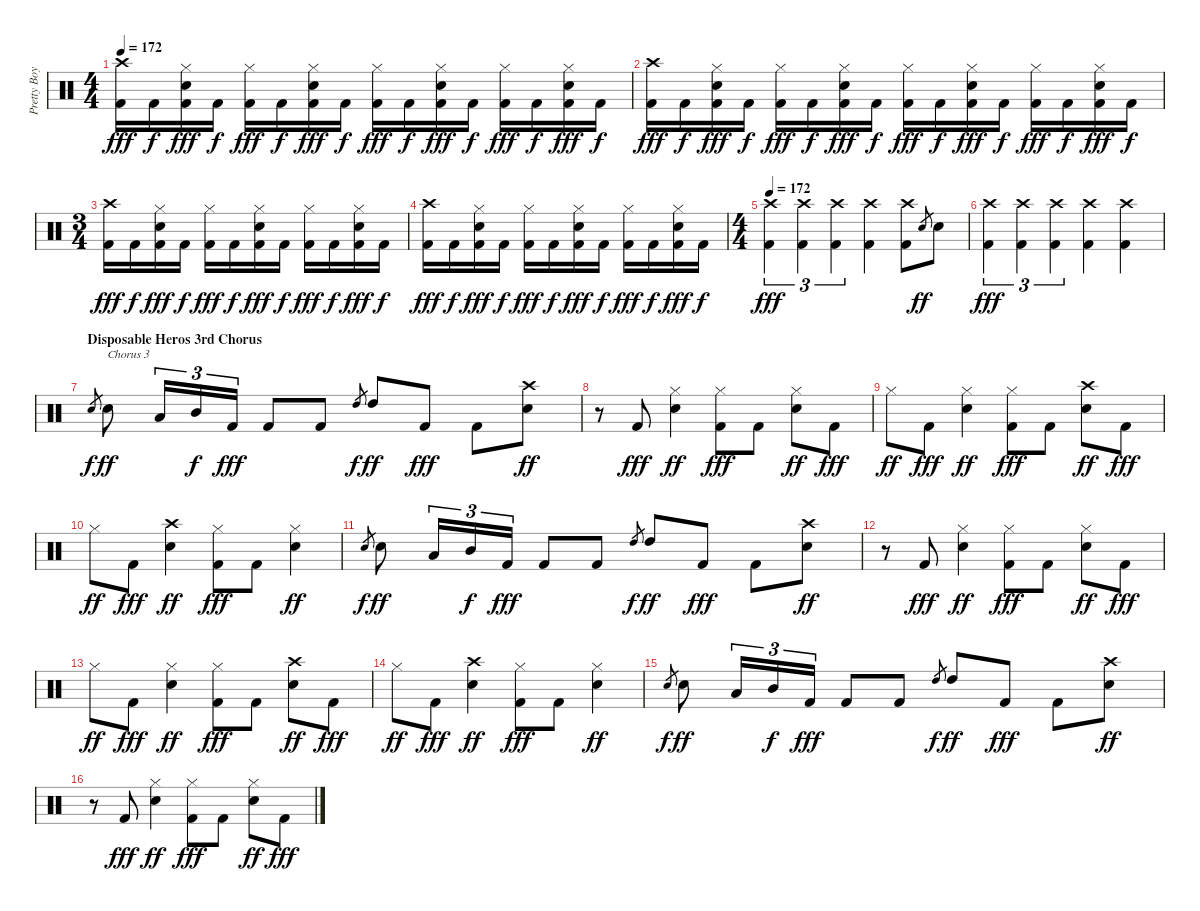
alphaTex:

\track ("Pretty Boy Geoff (Lars Drums)" "Pretty Boy") {instrument percussion}
\staff {score}
\articulation defaults
\ts (4 4)
\tempo 172
\clef neutral
\ks c
("Crash high (hit)" "Kick (hit) 2").16{dy fff} "Kick (hit) 2".16{dy f} ("Hi-Hat (closed)" "Snare (hit) 2" "Kick (hit) 2").16{dy fff} "Kick (hit) 2".16{dy f} ("Hi-Hat (closed)" "Kick (hit) 2").16{dy fff} "Kick (hit) 2".16{dy f} ("Hi-Hat (closed)" "Snare (hit) 2" "Kick (hit) 2").16{dy fff} "Kick (hit) 2".16{dy f} ("Hi-Hat (closed)" "Kick (hit) 2").16{dy fff} "Kick (hit) 2".16{dy f} ("Hi-Hat (closed)" "Snare (hit) 2" "Kick (hit) 2").16{dy fff} "Kick (hit) 2".16{dy f} ("Hi-Hat (closed)" "Kick (hit) 2").16{dy fff} "Kick (hit) 2".16{dy f} ("Hi-Hat (closed)" "Snare (hit) 2" "Kick (hit) 2").16{dy fff} "Kick (hit) 2".16{dy f} |
("Crash high (hit)" "Kick (hit) 2").16{dy fff} "Kick (hit) 2".16{dy f} ("Hi-Hat (closed)" "Snare (hit) 2" "Kick (hit) 2").16{dy fff} "Kick (hit) 2".16{dy f} ("Hi-Hat (closed)" "Kick (hit) 2").16{dy fff} "Kick (hit) 2".16{dy f} ("Hi-Hat (closed)" "Snare (hit) 2" "Kick (hit) 2").16{dy fff} "Kick (hit) 2".16{dy f} ("Hi-Hat (closed)" "Kick (hit) 2").16{dy fff} "Kick (hit) 2".16{dy f} ("Hi-Hat (closed)" "Snare (hit) 2" "Kick (hit) 2").16{dy fff} "Kick (hit) 2".16{dy f} ("Hi-Hat (closed)" "Kick (hit) 2").16{dy fff} "Kick (hit) 2".16{dy f} ("Hi-Hat (closed)" "Snare (hit) 2" "Kick (hit) 2").16{dy fff} "Kick (hit) 2".16{dy f} |
\ts (3 4)
("Crash high (hit)" "Kick (hit) 2").16{dy fff} "Kick (hit) 2".16{dy f} ("Hi-Hat (closed)" "Snare (hit) 2" "Kick (hit) 2").16{dy fff} "Kick (hit) 2".16{dy f} ("Hi-Hat (closed)" "Kick (hit) 2").16{dy fff} "Kick (hit) 2".16{dy f} ("Hi-Hat (closed)" "Snare (hit) 2" "Kick (hit) 2").16{dy fff} "Kick (hit) 2".16{dy f} ("Hi-Hat (closed)" "Kick (hit) 2").16{dy fff} "Kick (hit) 2".16{dy f} ("Hi-Hat (closed)" "Snare (hit) 2" "Kick (hit) 2").16{dy fff} "Kick (hit) 2".16{dy f} |
("Crash high (hit)" "Kick (hit) 2").16{dy fff} "Kick (hit) 2".16{dy f} ("Hi-Hat (closed)" "Snare (hit) 2" "Kick (hit) 2").16{dy fff} "Kick (hit) 2".16{dy f} ("Hi-Hat (closed)" "Kick (hit) 2").16{dy fff} "Kick (hit) 2".16{dy f} ("Hi-Hat (closed)" "Snare (hit) 2" "Kick (hit) 2").16{dy fff} "Kick (hit) 2".16{dy f} ("Hi-Hat (closed)" "Kick (hit) 2").16{dy fff} "Kick (hit) 2".16{dy f} ("Hi-Hat (closed)" "Snare (hit) 2" "Kick (hit) 2").16{dy fff} "Kick (hit) 2".16{dy f} |
\ts (4 4)
\tempo 172
("Crash high (hit)" "Kick (hit) 2").4{tu (3 2) dy fff} ("Crash high (hit)" "Kick (hit) 2").4{tu (3 2)} ("Crash high (hit)" "Kick (hit) 2").4{tu (3 2)} ("Crash high (hit)" "Kick (hit) 2").4 ("Crash high (hit)" "Kick (hit) 2").8 "Snare (hit) 2"{sl}.8{gr dy ff} "Snare (hit) 2".8 |
("Crash high (hit)" "Kick (hit) 2").4{tu (3 2) dy fff} ("Crash high (hit)" "Kick (hit) 2").4{tu (3 2)} ("Crash high (hit)" "Kick (hit) 2").4{tu (3 2)} ("Crash high (hit)" "Kick (hit) 2").4 ("Crash high (hit)" "Kick (hit) 2").4 |
\section ("" "Disposable Heros 3rd Chorus")
"Snare (hit) 2"{sl}.8{gr dy f} "Snare (hit) 2".8{txt "Chorus 3" dy ff} "Low Tom (hit)".16{tu (3 2)} "Mid Tom (hit)".16{tu (3 2) dy f} "Kick (hit) 2".16{tu (3 2) dy fff} "Kick (hit) 2".8 "Kick (hit) 2".8 "High Tom (hit)"{sl}.8{gr dy f} "High Tom (hit)".8{dy ff} "Kick (hit) 2".8{dy fff} "Kick (hit) 2".8 ("Crash high (hit)" "Snare (hit) 2").8{dy ff} |
r.8 "Kick (hit) 2".8{dy fff} ("Hi-Hat (closed)" "Snare (hit) 2").4{dy ff} ("Hi-Hat (closed)" "Kick (hit) 2").8{dy fff} "Kick (hit) 2".8 ("Hi-Hat (closed)" "Snare (hit) 2").8{dy ff} "Kick (hit) 2".8{dy fff} |
"Hi-Hat (closed)".8{dy ff} "Kick (hit) 2".8{dy fff} ("Hi-Hat (closed)" "Snare (hit) 2").4{dy ff} ("Hi-Hat (closed)" "Kick (hit) 2").8{dy fff} "Kick (hit) 2".8 ("Crash high (hit)" "Snare (hit) 2").8{dy ff} "Kick (hit) 2".8{dy fff} |
"Hi-Hat (closed)".8{dy ff} "Kick (hit) 2".8{dy fff} ("Crash high (hit)" "Snare (hit) 2").4{dy ff} ("Hi-Hat (closed)" "Kick (hit) 2").8{dy fff} "Kick (hit) 2".8 ("Hi-Hat (closed)" "Snare (hit) 2").4{dy ff} |
"Snare (hit) 2"{sl}.8{gr dy f} "Snare (hit) 2".8{dy ff} "Low Tom (hit)".16{tu (3 2)} "Mid Tom (hit)".16{tu (3 2) dy f} "Kick (hit) 2".16{tu (3 2) dy fff} "Kick (hit) 2".8 "Kick (hit) 2".8 "High Tom (hit)"{sl}.8{gr dy f} "High Tom (hit)".8{dy ff} "Kick (hit) 2".8{dy fff} "Kick (hit) 2".8 ("Crash high (hit)" "Snare (hit) 2").8{dy ff} |
r.8 "Kick (hit) 2".8{dy fff} ("Hi-Hat (closed)" "Snare (hit) 2").4{dy ff} ("Hi-Hat (closed)" "Kick (hit) 2").8{dy fff} "Kick (hit) 2".8 ("Hi-Hat (closed)" "Snare (hit) 2").8{dy ff} "Kick (hit) 2".8{dy fff} |
"Hi-Hat (closed)".8{dy ff} "Kick (hit) 2".8{dy fff} ("Hi-Hat (closed)" "Snare (hit) 2").4{dy ff} ("Hi-Hat (closed)" "Kick (hit) 2").8{dy fff} "Kick (hit) 2".8 ("Crash high (hit)" "Snare (hit) 2").8{dy ff} "Kick (hit) 2".8{dy fff} |
"Hi-Hat (closed)".8{dy ff} "Kick (hit) 2".8{dy fff} ("Crash high (hit)" "Snare (hit) 2").4{dy ff} ("Hi-Hat (closed)" "Kick (hit) 2").8{dy fff} "Kick (hit) 2".8 ("Hi-Hat (closed)" "Snare (hit) 2").4{dy ff} |
"Snare (hit) 2"{sl}.8{gr dy f} "Snare (hit) 2".8{dy ff} "Low Tom (hit)".16{tu (3 2)} "Mid Tom (hit)".16{tu (3 2) dy f} "Kick (hit) 2".16{tu (3 2) dy fff} "Kick (hit) 2".8 "Kick (hit) 2".8 "High Tom (hit)"{sl}.8{gr dy f} "High Tom (hit)".8{dy ff} "Kick (hit) 2".8{dy fff} "Kick (hit) 2".8 ("Crash high (hit)" "Snare (hit) 2").8{dy ff} |
r.8 "Kick (hit) 2".8{dy fff} ("Hi-Hat (closed)" "Snare (hit) 2").4{dy ff} ("Hi-Hat (closed)" "Kick (hit) 2").8{dy fff} "Kick (hit) 2".8 ("Hi-Hat (closed)" "Snare (hit) 2").8{dy ff} "Kick (hit) 2".8{dy fff}
